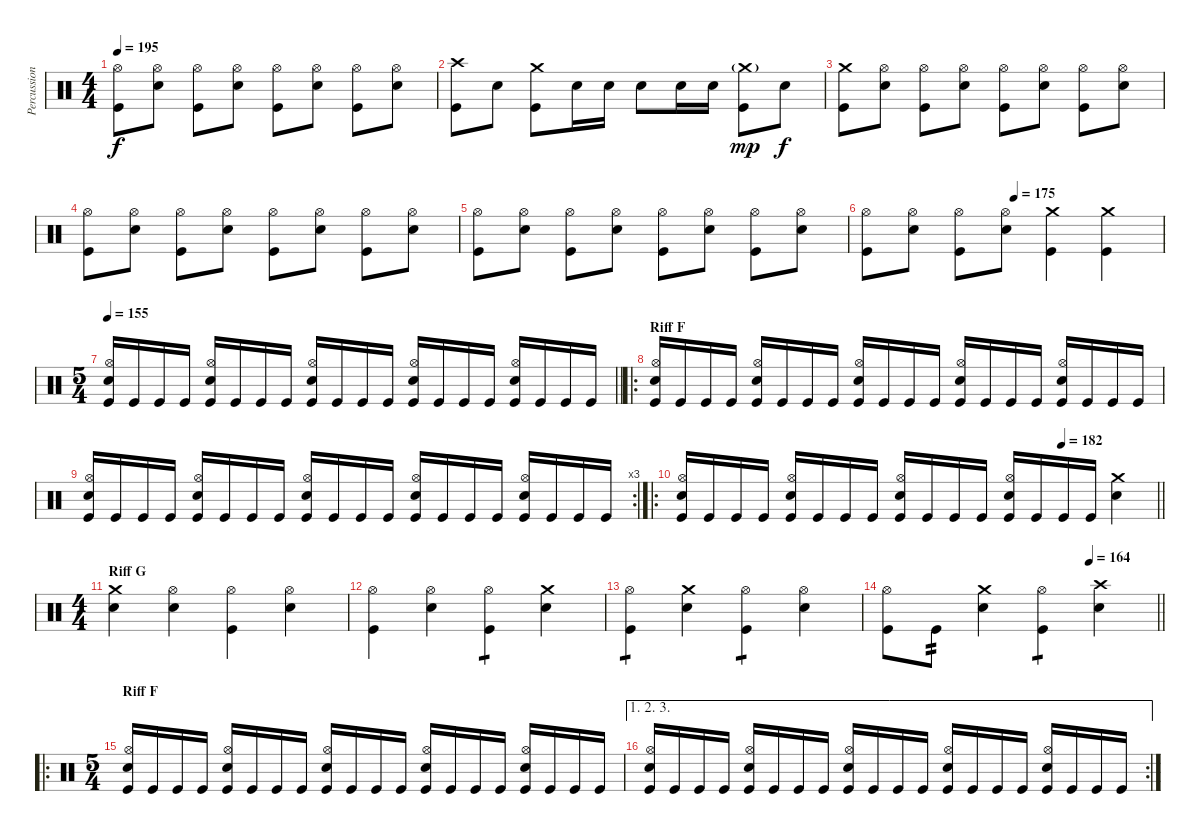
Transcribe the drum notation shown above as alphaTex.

\track ("Percussion" "Percussion") {instrument percussion}
\staff {score}
\articulation defaults
\ts (4 4)
\tempo 195
\clef neutral
\ks c
("Kick (hit)" "Hi-Hat (open)").8{dy f} ("Snare (hit) 2" "Hi-Hat (open)").8 ("Kick (hit)" "Hi-Hat (open)").8 ("Snare (hit) 2" "Hi-Hat (open)").8 ("Kick (hit)" "Hi-Hat (open)").8 ("Snare (hit) 2" "Hi-Hat (open)").8 ("Kick (hit)" "Hi-Hat (open)").8 ("Snare (hit) 2" "Hi-Hat (open)").8 |
("Kick (hit)" "Crash high (hit)").8 "Snare (hit) 2".8 ("Kick (hit)" "Crash medium (hit)").8 "Snare (hit) 2".16 "Snare (hit) 2".16 "Snare (hit) 2".8 "Snare (hit) 2".16 "Snare (hit) 2".16 ("Kick (hit)" "Crash medium (hit)"{g}).8{dy mp} "Snare (hit) 2".8{dy f} |
("Kick (hit)" "Crash medium (hit)").8 ("Snare (hit) 2" "Hi-Hat (open)").8 ("Kick (hit)" "Hi-Hat (open)").8 ("Snare (hit) 2" "Hi-Hat (open)").8 ("Kick (hit)" "Hi-Hat (open)").8 ("Snare (hit) 2" "Hi-Hat (open)").8 ("Kick (hit)" "Hi-Hat (open)").8 ("Snare (hit) 2" "Hi-Hat (open)").8 |
("Kick (hit)" "Hi-Hat (open)").8 ("Snare (hit) 2" "Hi-Hat (open)").8 ("Kick (hit)" "Hi-Hat (open)").8 ("Snare (hit) 2" "Hi-Hat (open)").8 ("Kick (hit)" "Hi-Hat (open)").8 ("Snare (hit) 2" "Hi-Hat (open)").8 ("Kick (hit)" "Hi-Hat (open)").8 ("Snare (hit) 2" "Hi-Hat (open)").8 |
("Kick (hit)" "Hi-Hat (open)").8 ("Snare (hit) 2" "Hi-Hat (open)").8 ("Kick (hit)" "Hi-Hat (open)").8 ("Snare (hit) 2" "Hi-Hat (open)").8 ("Kick (hit)" "Hi-Hat (open)").8 ("Snare (hit) 2" "Hi-Hat (open)").8 ("Kick (hit)" "Hi-Hat (open)").8 ("Snare (hit) 2" "Hi-Hat (open)").8 |
\tempo (175 0.5)
("Kick (hit)" "Hi-Hat (open)").8 ("Snare (hit) 2" "Hi-Hat (open)").8 ("Kick (hit)" "Hi-Hat (open)").8 ("Snare (hit) 2" "Hi-Hat (open)").8 ("Kick (hit)" "Crash medium (hit)").4 ("Kick (hit)" "Crash medium (hit)").4 |
\ts (5 4)
\tempo 155
\barLineRight lightlight
("Snare (hit) 2" "Kick (hit)" "Hi-Hat (open)").16 "Kick (hit)".16 "Kick (hit)".16 "Kick (hit)".16 ("Snare (hit) 2" "Kick (hit)" "Hi-Hat (open)").16 "Kick (hit)".16 "Kick (hit)".16 "Kick (hit)".16 ("Snare (hit) 2" "Kick (hit)" "Hi-Hat (open)").16 "Kick (hit)".16 "Kick (hit)".16 "Kick (hit)".16 ("Snare (hit) 2" "Kick (hit)" "Hi-Hat (open)").16 "Kick (hit)".16 "Kick (hit)".16 "Kick (hit)".16 ("Snare (hit) 2" "Kick (hit)" "Hi-Hat (open)").16 "Kick (hit)".16 "Kick (hit)".16 "Kick (hit)".16 |
\ro
\section ("" "Riff F")
("Snare (hit) 2" "Kick (hit)" "Hi-Hat (open)").16 "Kick (hit)".16 "Kick (hit)".16 "Kick (hit)".16 ("Snare (hit) 2" "Kick (hit)" "Hi-Hat (open)").16 "Kick (hit)".16 "Kick (hit)".16 "Kick (hit)".16 ("Snare (hit) 2" "Kick (hit)" "Hi-Hat (open)").16 "Kick (hit)".16 "Kick (hit)".16 "Kick (hit)".16 ("Snare (hit) 2" "Kick (hit)" "Hi-Hat (open)").16 "Kick (hit)".16 "Kick (hit)".16 "Kick (hit)".16 ("Snare (hit) 2" "Kick (hit)" "Hi-Hat (open)").16 "Kick (hit)".16 "Kick (hit)".16 "Kick (hit)".16 |
\rc 3
("Snare (hit) 2" "Kick (hit)" "Hi-Hat (open)").16 "Kick (hit)".16 "Kick (hit)".16 "Kick (hit)".16 ("Snare (hit) 2" "Kick (hit)" "Hi-Hat (open)").16 "Kick (hit)".16 "Kick (hit)".16 "Kick (hit)".16 ("Snare (hit) 2" "Kick (hit)" "Hi-Hat (open)").16 "Kick (hit)".16 "Kick (hit)".16 "Kick (hit)".16 ("Snare (hit) 2" "Kick (hit)" "Hi-Hat (open)").16 "Kick (hit)".16 "Kick (hit)".16 "Kick (hit)".16 ("Snare (hit) 2" "Kick (hit)" "Hi-Hat (open)").16 "Kick (hit)".16 "Kick (hit)".16 "Kick (hit)".16 |
\ro
\tempo (182 0.8)
\barLineRight lightlight
("Snare (hit) 2" "Kick (hit)" "Hi-Hat (open)").16 "Kick (hit)".16 "Kick (hit)".16 "Kick (hit)".16 ("Snare (hit) 2" "Kick (hit)" "Hi-Hat (open)").16 "Kick (hit)".16 "Kick (hit)".16 "Kick (hit)".16 ("Snare (hit) 2" "Kick (hit)" "Hi-Hat (open)").16 "Kick (hit)".16 "Kick (hit)".16 "Kick (hit)".16 ("Snare (hit) 2" "Kick (hit)" "Hi-Hat (open)").16 "Kick (hit)".16 "Kick (hit)".16 "Kick (hit)".16 ("Snare (hit) 2" "Crash medium (hit)").4 |
\ts (4 4)
\section ("" "Riff G")
("Snare (hit) 2" "Crash medium (hit)").4 ("Snare (hit) 2" "Hi-Hat (open)").4 ("Kick (hit)" "Hi-Hat (open)").4 ("Snare (hit) 2" "Hi-Hat (open)").4 |
("Kick (hit)" "Hi-Hat (open)").4 ("Snare (hit) 2" "Hi-Hat (open)").4 ("Kick (hit)" "Hi-Hat (open)").4{tp 1} ("Snare (hit) 2" "Crash medium (hit)").4 |
("Kick (hit)" "Hi-Hat (open)").4{tp 1} ("Snare (hit) 2" "Crash medium (hit)").4 ("Kick (hit)" "Hi-Hat (open)").4{tp 1} ("Snare (hit) 2" "Hi-Hat (open)").4 |
\tempo (164 0.75)
\barLineRight lightlight
("Kick (hit)" "Hi-Hat (open)").8 "Kick (hit)".8{tp 2} ("Snare (hit) 2" "Crash medium (hit)").4 ("Kick (hit)" "Hi-Hat (open)").4{tp 1} ("Snare (hit) 2" "Crash high (hit)").4 |
\ro
\ts (5 4)
\section ("" "Riff F")
("Snare (hit) 2" "Kick (hit)" "Hi-Hat (open)").16 "Kick (hit)".16 "Kick (hit)".16 "Kick (hit)".16 ("Snare (hit) 2" "Kick (hit)" "Hi-Hat (open)").16 "Kick (hit)".16 "Kick (hit)".16 "Kick (hit)".16 ("Snare (hit) 2" "Kick (hit)" "Hi-Hat (open)").16 "Kick (hit)".16 "Kick (hit)".16 "Kick (hit)".16 ("Snare (hit) 2" "Kick (hit)" "Hi-Hat (open)").16 "Kick (hit)".16 "Kick (hit)".16 "Kick (hit)".16 ("Snare (hit) 2" "Kick (hit)" "Hi-Hat (open)").16 "Kick (hit)".16 "Kick (hit)".16 "Kick (hit)".16 |
\ae (1 2 3)
\rc 2
("Snare (hit) 2" "Kick (hit)" "Hi-Hat (open)").16 "Kick (hit)".16 "Kick (hit)".16 "Kick (hit)".16 ("Snare (hit) 2" "Kick (hit)" "Hi-Hat (open)").16 "Kick (hit)".16 "Kick (hit)".16 "Kick (hit)".16 ("Snare (hit) 2" "Kick (hit)" "Hi-Hat (open)").16 "Kick (hit)".16 "Kick (hit)".16 "Kick (hit)".16 ("Snare (hit) 2" "Kick (hit)" "Hi-Hat (open)").16 "Kick (hit)".16 "Kick (hit)".16 "Kick (hit)".16 ("Snare (hit) 2" "Kick (hit)" "Hi-Hat (open)").16 "Kick (hit)".16 "Kick (hit)".16 "Kick (hit)".16
